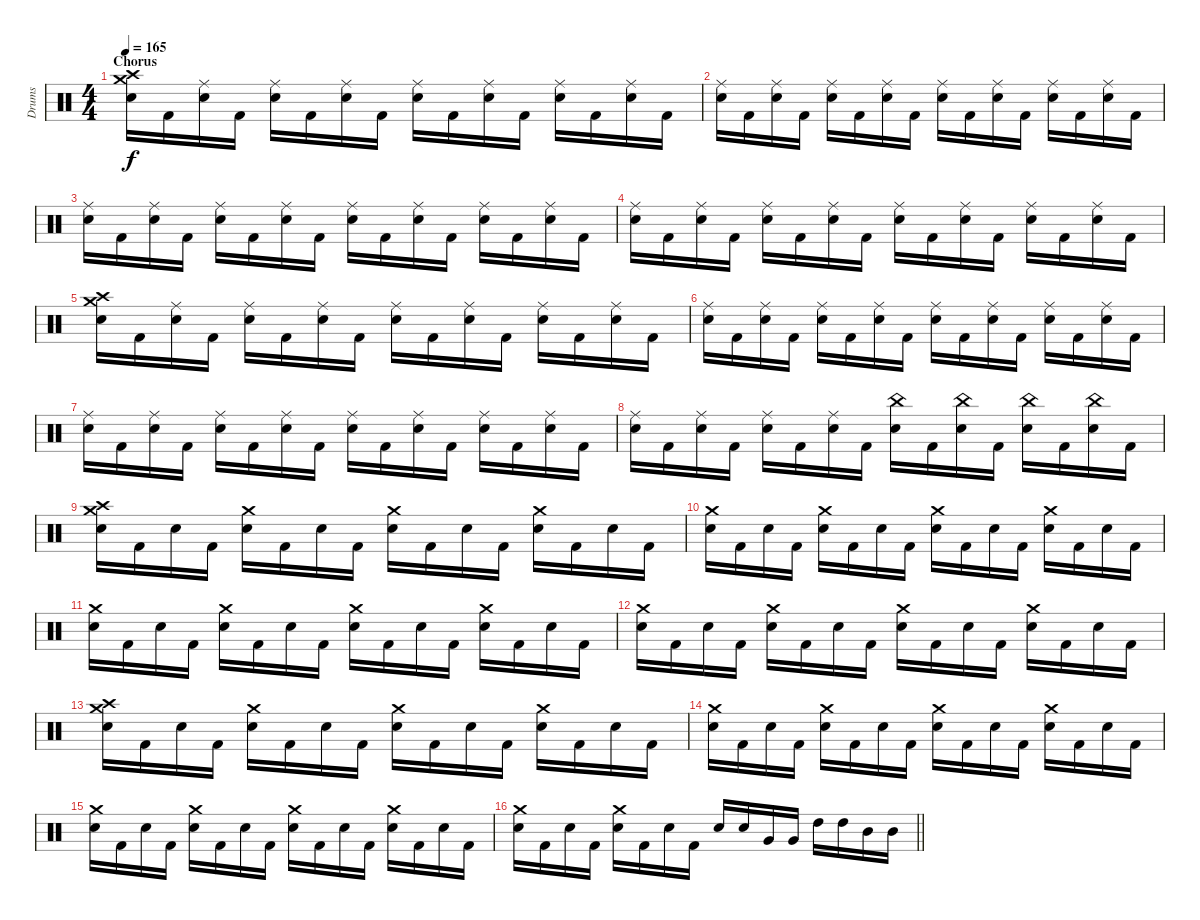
\track ("Drums" "Drums") {instrument percussion}
\staff {score}
\articulation defaults
\ts (4 4)
\section ("" "Chorus")
\tempo 165
\clef neutral
\ks c
("Crash medium (hit)" "Crash high (hit)" "Electric Snare (hit)").16{dy f} "Kick (hit) 2".16 ("Ride (middle)" "Electric Snare (hit)").16 "Kick (hit) 2".16 ("Ride (middle)" "Electric Snare (hit)").16 "Kick (hit) 2".16 ("Ride (middle)" "Electric Snare (hit)").16 "Kick (hit) 2".16 ("Ride (middle)" "Electric Snare (hit)").16 "Kick (hit) 2".16 ("Ride (middle)" "Electric Snare (hit)").16 "Kick (hit) 2".16 ("Ride (middle)" "Electric Snare (hit)").16 "Kick (hit) 2".16 ("Ride (middle)" "Electric Snare (hit)").16 "Kick (hit) 2".16 |
("Ride (middle)" "Electric Snare (hit)").16 "Kick (hit) 2".16 ("Ride (middle)" "Electric Snare (hit)").16 "Kick (hit) 2".16 ("Ride (middle)" "Electric Snare (hit)").16 "Kick (hit) 2".16 ("Ride (middle)" "Electric Snare (hit)").16 "Kick (hit) 2".16 ("Ride (middle)" "Electric Snare (hit)").16 "Kick (hit) 2".16 ("Ride (middle)" "Electric Snare (hit)").16 "Kick (hit) 2".16 ("Ride (middle)" "Electric Snare (hit)").16 "Kick (hit) 2".16 ("Ride (middle)" "Electric Snare (hit)").16 "Kick (hit) 2".16 |
("Ride (middle)" "Electric Snare (hit)").16 "Kick (hit) 2".16 ("Ride (middle)" "Electric Snare (hit)").16 "Kick (hit) 2".16 ("Ride (middle)" "Electric Snare (hit)").16 "Kick (hit) 2".16 ("Ride (middle)" "Electric Snare (hit)").16 "Kick (hit) 2".16 ("Ride (middle)" "Electric Snare (hit)").16 "Kick (hit) 2".16 ("Ride (middle)" "Electric Snare (hit)").16 "Kick (hit) 2".16 ("Ride (middle)" "Electric Snare (hit)").16 "Kick (hit) 2".16 ("Ride (middle)" "Electric Snare (hit)").16 "Kick (hit) 2".16 |
("Ride (middle)" "Electric Snare (hit)").16 "Kick (hit) 2".16 ("Ride (middle)" "Electric Snare (hit)").16 "Kick (hit) 2".16 ("Ride (middle)" "Electric Snare (hit)").16 "Kick (hit) 2".16 ("Ride (middle)" "Electric Snare (hit)").16 "Kick (hit) 2".16 ("Ride (middle)" "Electric Snare (hit)").16 "Kick (hit) 2".16 ("Ride (middle)" "Electric Snare (hit)").16 "Kick (hit) 2".16 ("Ride (middle)" "Electric Snare (hit)").16 "Kick (hit) 2".16 ("Ride (middle)" "Electric Snare (hit)").16 "Kick (hit) 2".16 |
("Crash medium (hit)" "Crash high (hit)" "Electric Snare (hit)").16 "Kick (hit) 2".16 ("Ride (middle)" "Electric Snare (hit)").16 "Kick (hit) 2".16 ("Ride (middle)" "Electric Snare (hit)").16 "Kick (hit) 2".16 ("Ride (middle)" "Electric Snare (hit)").16 "Kick (hit) 2".16 ("Ride (middle)" "Electric Snare (hit)").16 "Kick (hit) 2".16 ("Ride (middle)" "Electric Snare (hit)").16 "Kick (hit) 2".16 ("Ride (middle)" "Electric Snare (hit)").16 "Kick (hit) 2".16 ("Ride (middle)" "Electric Snare (hit)").16 "Kick (hit) 2".16 |
("Ride (middle)" "Electric Snare (hit)").16 "Kick (hit) 2".16 ("Ride (middle)" "Electric Snare (hit)").16 "Kick (hit) 2".16 ("Ride (middle)" "Electric Snare (hit)").16 "Kick (hit) 2".16 ("Ride (middle)" "Electric Snare (hit)").16 "Kick (hit) 2".16 ("Ride (middle)" "Electric Snare (hit)").16 "Kick (hit) 2".16 ("Ride (middle)" "Electric Snare (hit)").16 "Kick (hit) 2".16 ("Ride (middle)" "Electric Snare (hit)").16 "Kick (hit) 2".16 ("Ride (middle)" "Electric Snare (hit)").16 "Kick (hit) 2".16 |
("Ride (middle)" "Electric Snare (hit)").16 "Kick (hit) 2".16 ("Ride (middle)" "Electric Snare (hit)").16 "Kick (hit) 2".16 ("Ride (middle)" "Electric Snare (hit)").16 "Kick (hit) 2".16 ("Ride (middle)" "Electric Snare (hit)").16 "Kick (hit) 2".16 ("Ride (middle)" "Electric Snare (hit)").16 "Kick (hit) 2".16 ("Ride (middle)" "Electric Snare (hit)").16 "Kick (hit) 2".16 ("Ride (middle)" "Electric Snare (hit)").16 "Kick (hit) 2".16 ("Ride (middle)" "Electric Snare (hit)").16 "Kick (hit) 2".16 |
("Ride (middle)" "Electric Snare (hit)").16 "Kick (hit) 2".16 ("Ride (middle)" "Electric Snare (hit)").16 "Kick (hit) 2".16 ("Ride (middle)" "Electric Snare (hit)").16 "Kick (hit) 2".16 ("Ride (middle)" "Electric Snare (hit)").16 "Kick (hit) 2".16 ("China (hit)" "Electric Snare (hit)").16 "Kick (hit) 2".16 ("China (hit)" "Electric Snare (hit)").16 "Kick (hit) 2".16 ("China (hit)" "Electric Snare (hit)").16 "Kick (hit) 2".16 ("China (hit)" "Electric Snare (hit)").16 "Kick (hit) 2".16 |
("Crash medium (hit)" "Crash high (hit)" "Electric Snare (hit)").16 "Kick (hit) 2".16 "Electric Snare (hit)".16 "Kick (hit) 2".16 ("Crash medium (hit)" "Electric Snare (hit)").16 "Kick (hit) 2".16 "Electric Snare (hit)".16 "Kick (hit) 2".16 ("Crash medium (hit)" "Electric Snare (hit)").16 "Kick (hit) 2".16 "Electric Snare (hit)".16 "Kick (hit) 2".16 ("Crash medium (hit)" "Electric Snare (hit)").16 "Kick (hit) 2".16 "Electric Snare (hit)".16 "Kick (hit) 2".16 |
("Crash medium (hit)" "Electric Snare (hit)").16 "Kick (hit) 2".16 "Electric Snare (hit)".16 "Kick (hit) 2".16 ("Crash medium (hit)" "Electric Snare (hit)").16 "Kick (hit) 2".16 "Electric Snare (hit)".16 "Kick (hit) 2".16 ("Crash medium (hit)" "Electric Snare (hit)").16 "Kick (hit) 2".16 "Electric Snare (hit)".16 "Kick (hit) 2".16 ("Crash medium (hit)" "Electric Snare (hit)").16 "Kick (hit) 2".16 "Electric Snare (hit)".16 "Kick (hit) 2".16 |
("Crash medium (hit)" "Electric Snare (hit)").16 "Kick (hit) 2".16 "Electric Snare (hit)".16 "Kick (hit) 2".16 ("Crash medium (hit)" "Electric Snare (hit)").16 "Kick (hit) 2".16 "Electric Snare (hit)".16 "Kick (hit) 2".16 ("Crash medium (hit)" "Electric Snare (hit)").16 "Kick (hit) 2".16 "Electric Snare (hit)".16 "Kick (hit) 2".16 ("Crash medium (hit)" "Electric Snare (hit)").16 "Kick (hit) 2".16 "Electric Snare (hit)".16 "Kick (hit) 2".16 |
("Crash medium (hit)" "Electric Snare (hit)").16 "Kick (hit) 2".16 "Electric Snare (hit)".16 "Kick (hit) 2".16 ("Crash medium (hit)" "Electric Snare (hit)").16 "Kick (hit) 2".16 "Electric Snare (hit)".16 "Kick (hit) 2".16 ("Crash medium (hit)" "Electric Snare (hit)").16 "Kick (hit) 2".16 "Electric Snare (hit)".16 "Kick (hit) 2".16 ("Crash medium (hit)" "Electric Snare (hit)").16 "Kick (hit) 2".16 "Electric Snare (hit)".16 "Kick (hit) 2".16 |
("Crash medium (hit)" "Crash high (hit)" "Electric Snare (hit)").16 "Kick (hit) 2".16 "Electric Snare (hit)".16 "Kick (hit) 2".16 ("Crash medium (hit)" "Electric Snare (hit)").16 "Kick (hit) 2".16 "Electric Snare (hit)".16 "Kick (hit) 2".16 ("Crash medium (hit)" "Electric Snare (hit)").16 "Kick (hit) 2".16 "Electric Snare (hit)".16 "Kick (hit) 2".16 ("Crash medium (hit)" "Electric Snare (hit)").16 "Kick (hit) 2".16 "Electric Snare (hit)".16 "Kick (hit) 2".16 |
("Crash medium (hit)" "Electric Snare (hit)").16 "Kick (hit) 2".16 "Electric Snare (hit)".16 "Kick (hit) 2".16 ("Crash medium (hit)" "Electric Snare (hit)").16 "Kick (hit) 2".16 "Electric Snare (hit)".16 "Kick (hit) 2".16 ("Crash medium (hit)" "Electric Snare (hit)").16 "Kick (hit) 2".16 "Electric Snare (hit)".16 "Kick (hit) 2".16 ("Crash medium (hit)" "Electric Snare (hit)").16 "Kick (hit) 2".16 "Electric Snare (hit)".16 "Kick (hit) 2".16 |
("Crash medium (hit)" "Electric Snare (hit)").16 "Kick (hit) 2".16 "Electric Snare (hit)".16 "Kick (hit) 2".16 ("Crash medium (hit)" "Electric Snare (hit)").16 "Kick (hit) 2".16 "Electric Snare (hit)".16 "Kick (hit) 2".16 ("Crash medium (hit)" "Electric Snare (hit)").16 "Kick (hit) 2".16 "Electric Snare (hit)".16 "Kick (hit) 2".16 ("Crash medium (hit)" "Electric Snare (hit)").16 "Kick (hit) 2".16 "Electric Snare (hit)".16 "Kick (hit) 2".16 |
\barLineRight lightlight
("Crash medium (hit)" "Electric Snare (hit)").16 "Kick (hit) 2".16 "Electric Snare (hit)".16 "Kick (hit) 2".16 ("Crash medium (hit)" "Electric Snare (hit)").16 "Kick (hit) 2".16 "Electric Snare (hit)".16 "Kick (hit) 2".16 "Electric Snare (hit)".16 "Electric Snare (hit)".16 "Very Low Tom (hit)".16 "Very Low Tom (hit)".16 "High Tom (hit)".16 "High Tom (hit)".16 "Mid Tom (hit)".16 "Mid Tom (hit)".16
